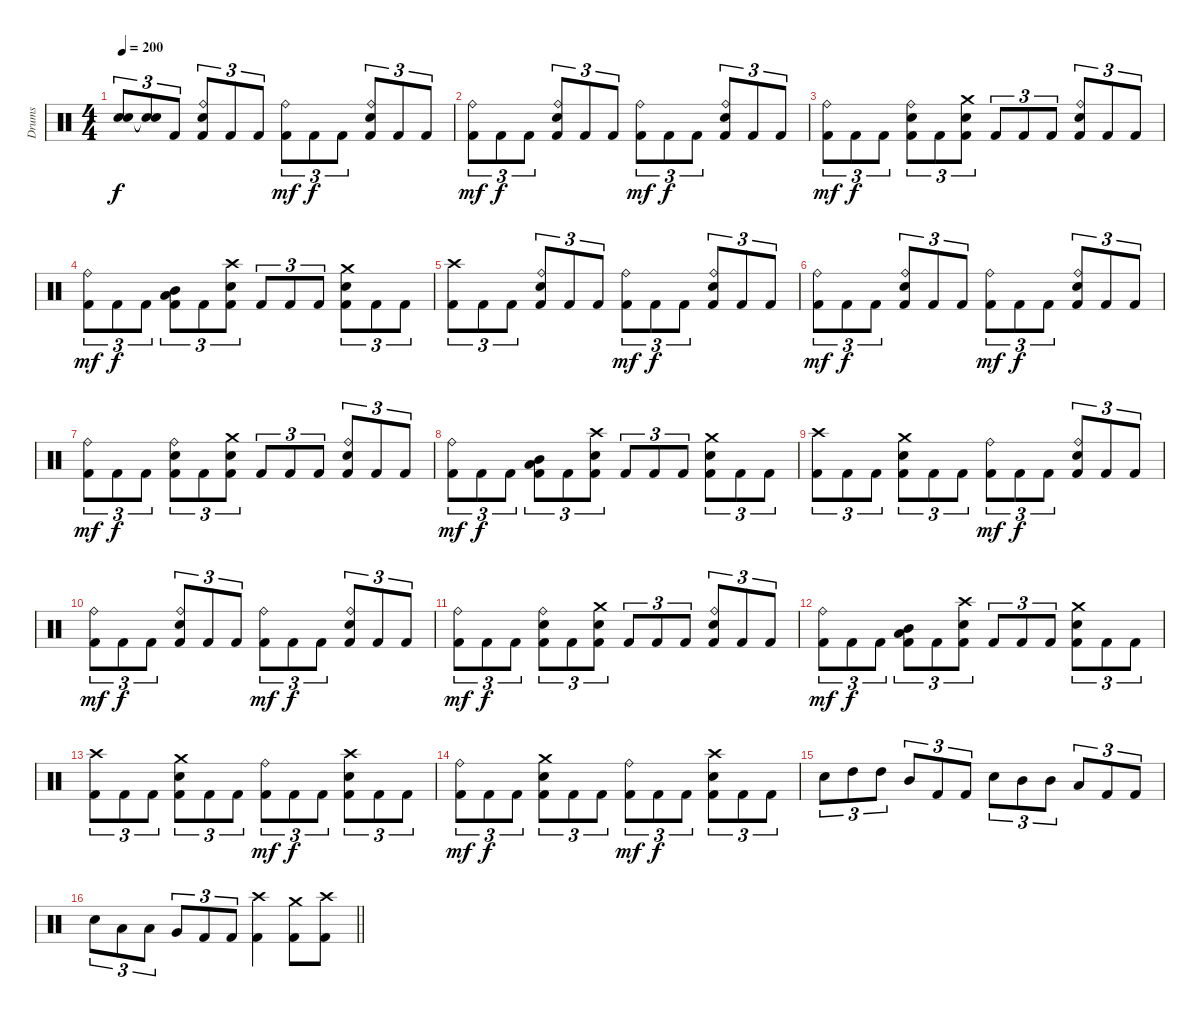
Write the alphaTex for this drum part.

\track ("Drums" "Drums") {instrument percussion}
\staff {score}
\articulation defaults
\ts (4 4)
\tempo 200
\clef neutral
\ks c
("Snare (hit)"{t} "Snare (hit)"{t}).8{tu (3 2) dy f} ("Snare (hit)"{t} "Snare (hit)"{t}).8{tu (3 2)} "Kick (hit) 2".8{tu (3 2)} ("Ride (bell)" "Electric Snare (hit)" "Kick (hit) 2").8{tu (3 2)} "Kick (hit) 2".8{tu (3 2)} "Kick (hit) 2".8{tu (3 2)} ("Ride (bell)" "Kick (hit) 2").8{tu (3 2) dy mf} "Kick (hit) 2".8{tu (3 2) dy f} "Kick (hit) 2".8{tu (3 2)} ("Ride (bell)" "Electric Snare (hit)" "Kick (hit) 2").8{tu (3 2)} "Kick (hit) 2".8{tu (3 2)} "Kick (hit) 2".8{tu (3 2)} |
("Ride (bell)" "Kick (hit) 2").8{tu (3 2) dy mf} "Kick (hit) 2".8{tu (3 2) dy f} "Kick (hit) 2".8{tu (3 2)} ("Ride (bell)" "Electric Snare (hit)" "Kick (hit) 2").8{tu (3 2)} "Kick (hit) 2".8{tu (3 2)} "Kick (hit) 2".8{tu (3 2)} ("Ride (bell)" "Kick (hit) 2").8{tu (3 2) dy mf} "Kick (hit) 2".8{tu (3 2) dy f} "Kick (hit) 2".8{tu (3 2)} ("Ride (bell)" "Electric Snare (hit)" "Kick (hit) 2").8{tu (3 2)} "Kick (hit) 2".8{tu (3 2)} "Kick (hit) 2".8{tu (3 2)} |
("Ride (bell)" "Kick (hit) 2").8{tu (3 2) dy mf} "Kick (hit) 2".8{tu (3 2) dy f} "Kick (hit) 2".8{tu (3 2)} ("Ride (bell)" "Electric Snare (hit)" "Kick (hit) 2").8{tu (3 2)} "Kick (hit) 2".8{tu (3 2)} ("Crash medium (hit)" "Electric Snare (hit)" "Kick (hit) 2").8{tu (3 2)} "Kick (hit) 2".8{tu (3 2)} "Kick (hit) 2".8{tu (3 2)} "Kick (hit) 2".8{tu (3 2)} ("Ride (bell)" "Electric Snare (hit)" "Kick (hit) 2").8{tu (3 2)} "Kick (hit) 2".8{tu (3 2)} "Kick (hit) 2".8{tu (3 2)} |
("Ride (bell)" "Kick (hit) 2").8{tu (3 2) dy mf} "Kick (hit) 2".8{tu (3 2) dy f} "Kick (hit) 2".8{tu (3 2)} ("Mid Tom (hit)" "Low Tom (hit)" "Kick (hit) 2").8{tu (3 2)} "Kick (hit) 2".8{tu (3 2)} ("Crash high (hit)" "Electric Snare (hit)" "Kick (hit) 2").8{tu (3 2)} "Kick (hit) 2".8{tu (3 2)} "Kick (hit) 2".8{tu (3 2)} "Kick (hit) 2".8{tu (3 2)} ("Crash medium (hit)" "Electric Snare (hit)" "Kick (hit) 2").8{tu (3 2)} "Kick (hit) 2".8{tu (3 2)} "Kick (hit) 2".8{tu (3 2)} |
("Crash high (hit)" "Kick (hit) 2").8{tu (3 2)} "Kick (hit) 2".8{tu (3 2)} "Kick (hit) 2".8{tu (3 2)} ("Ride (bell)" "Electric Snare (hit)" "Kick (hit) 2").8{tu (3 2)} "Kick (hit) 2".8{tu (3 2)} "Kick (hit) 2".8{tu (3 2)} ("Ride (bell)" "Kick (hit) 2").8{tu (3 2) dy mf} "Kick (hit) 2".8{tu (3 2) dy f} "Kick (hit) 2".8{tu (3 2)} ("Ride (bell)" "Electric Snare (hit)" "Kick (hit) 2").8{tu (3 2)} "Kick (hit) 2".8{tu (3 2)} "Kick (hit) 2".8{tu (3 2)} |
("Ride (bell)" "Kick (hit) 2").8{tu (3 2) dy mf} "Kick (hit) 2".8{tu (3 2) dy f} "Kick (hit) 2".8{tu (3 2)} ("Ride (bell)" "Electric Snare (hit)" "Kick (hit) 2").8{tu (3 2)} "Kick (hit) 2".8{tu (3 2)} "Kick (hit) 2".8{tu (3 2)} ("Ride (bell)" "Kick (hit) 2").8{tu (3 2) dy mf} "Kick (hit) 2".8{tu (3 2) dy f} "Kick (hit) 2".8{tu (3 2)} ("Ride (bell)" "Electric Snare (hit)" "Kick (hit) 2").8{tu (3 2)} "Kick (hit) 2".8{tu (3 2)} "Kick (hit) 2".8{tu (3 2)} |
("Ride (bell)" "Kick (hit) 2").8{tu (3 2) dy mf} "Kick (hit) 2".8{tu (3 2) dy f} "Kick (hit) 2".8{tu (3 2)} ("Ride (bell)" "Electric Snare (hit)" "Kick (hit) 2").8{tu (3 2)} "Kick (hit) 2".8{tu (3 2)} ("Crash medium (hit)" "Electric Snare (hit)" "Kick (hit) 2").8{tu (3 2)} "Kick (hit) 2".8{tu (3 2)} "Kick (hit) 2".8{tu (3 2)} "Kick (hit) 2".8{tu (3 2)} ("Ride (bell)" "Electric Snare (hit)" "Kick (hit) 2").8{tu (3 2)} "Kick (hit) 2".8{tu (3 2)} "Kick (hit) 2".8{tu (3 2)} |
("Ride (bell)" "Kick (hit) 2").8{tu (3 2) dy mf} "Kick (hit) 2".8{tu (3 2) dy f} "Kick (hit) 2".8{tu (3 2)} ("Mid Tom (hit)" "Low Tom (hit)" "Kick (hit) 2").8{tu (3 2)} "Kick (hit) 2".8{tu (3 2)} ("Crash high (hit)" "Electric Snare (hit)" "Kick (hit) 2").8{tu (3 2)} "Kick (hit) 2".8{tu (3 2)} "Kick (hit) 2".8{tu (3 2)} "Kick (hit) 2".8{tu (3 2)} ("Crash medium (hit)" "Electric Snare (hit)" "Kick (hit) 2").8{tu (3 2)} "Kick (hit) 2".8{tu (3 2)} "Kick (hit) 2".8{tu (3 2)} |
("Crash high (hit)" "Kick (hit) 2").8{tu (3 2)} "Kick (hit) 2".8{tu (3 2)} "Kick (hit) 2".8{tu (3 2)} ("Crash medium (hit)" "Electric Snare (hit)" "Kick (hit) 2").8{tu (3 2)} "Kick (hit) 2".8{tu (3 2)} "Kick (hit) 2".8{tu (3 2)} ("Ride (bell)" "Kick (hit) 2").8{tu (3 2) dy mf} "Kick (hit) 2".8{tu (3 2) dy f} "Kick (hit) 2".8{tu (3 2)} ("Ride (bell)" "Electric Snare (hit)" "Kick (hit) 2").8{tu (3 2)} "Kick (hit) 2".8{tu (3 2)} "Kick (hit) 2".8{tu (3 2)} |
("Ride (bell)" "Kick (hit) 2").8{tu (3 2) dy mf} "Kick (hit) 2".8{tu (3 2) dy f} "Kick (hit) 2".8{tu (3 2)} ("Ride (bell)" "Electric Snare (hit)" "Kick (hit) 2").8{tu (3 2)} "Kick (hit) 2".8{tu (3 2)} "Kick (hit) 2".8{tu (3 2)} ("Ride (bell)" "Kick (hit) 2").8{tu (3 2) dy mf} "Kick (hit) 2".8{tu (3 2) dy f} "Kick (hit) 2".8{tu (3 2)} ("Ride (bell)" "Electric Snare (hit)" "Kick (hit) 2").8{tu (3 2)} "Kick (hit) 2".8{tu (3 2)} "Kick (hit) 2".8{tu (3 2)} |
("Ride (bell)" "Kick (hit) 2").8{tu (3 2) dy mf} "Kick (hit) 2".8{tu (3 2) dy f} "Kick (hit) 2".8{tu (3 2)} ("Ride (bell)" "Electric Snare (hit)" "Kick (hit) 2").8{tu (3 2)} "Kick (hit) 2".8{tu (3 2)} ("Crash medium (hit)" "Electric Snare (hit)" "Kick (hit) 2").8{tu (3 2)} "Kick (hit) 2".8{tu (3 2)} "Kick (hit) 2".8{tu (3 2)} "Kick (hit) 2".8{tu (3 2)} ("Ride (bell)" "Electric Snare (hit)" "Kick (hit) 2").8{tu (3 2)} "Kick (hit) 2".8{tu (3 2)} "Kick (hit) 2".8{tu (3 2)} |
("Ride (bell)" "Kick (hit) 2").8{tu (3 2) dy mf} "Kick (hit) 2".8{tu (3 2) dy f} "Kick (hit) 2".8{tu (3 2)} ("Mid Tom (hit)" "Low Tom (hit)" "Kick (hit) 2").8{tu (3 2)} "Kick (hit) 2".8{tu (3 2)} ("Crash high (hit)" "Electric Snare (hit)" "Kick (hit) 2").8{tu (3 2)} "Kick (hit) 2".8{tu (3 2)} "Kick (hit) 2".8{tu (3 2)} "Kick (hit) 2".8{tu (3 2)} ("Crash medium (hit)" "Electric Snare (hit)" "Kick (hit) 2").8{tu (3 2)} "Kick (hit) 2".8{tu (3 2)} "Kick (hit) 2".8{tu (3 2)} |
("Crash high (hit)" "Kick (hit) 2").8{tu (3 2)} "Kick (hit) 2".8{tu (3 2)} "Kick (hit) 2".8{tu (3 2)} ("Crash medium (hit)" "Electric Snare (hit)" "Kick (hit) 2").8{tu (3 2)} "Kick (hit) 2".8{tu (3 2)} "Kick (hit) 2".8{tu (3 2)} ("Ride (bell)" "Kick (hit) 2").8{tu (3 2) dy mf} "Kick (hit) 2".8{tu (3 2) dy f} "Kick (hit) 2".8{tu (3 2)} ("Crash high (hit)" "Electric Snare (hit)" "Kick (hit) 2").8{tu (3 2)} "Kick (hit) 2".8{tu (3 2)} "Kick (hit) 2".8{tu (3 2)} |
("Ride (bell)" "Kick (hit) 2").8{tu (3 2) dy mf} "Kick (hit) 2".8{tu (3 2) dy f} "Kick (hit) 2".8{tu (3 2)} ("Crash medium (hit)" "Electric Snare (hit)" "Kick (hit) 2").8{tu (3 2)} "Kick (hit) 2".8{tu (3 2)} "Kick (hit) 2".8{tu (3 2)} ("Ride (bell)" "Kick (hit) 2").8{tu (3 2) dy mf} "Kick (hit) 2".8{tu (3 2) dy f} "Kick (hit) 2".8{tu (3 2)} ("Crash high (hit)" "Electric Snare (hit)" "Kick (hit) 2").8{tu (3 2)} "Kick (hit) 2".8{tu (3 2)} "Kick (hit) 2".8{tu (3 2)} |
"Electric Snare (hit)".8{tu (3 2)} "High Tom (hit)".8{tu (3 2)} "High Tom (hit)".8{tu (3 2)} "Mid Tom (hit)".8{tu (3 2)} "Kick (hit) 2".8{tu (3 2)} "Kick (hit) 2".8{tu (3 2)} "Electric Snare (hit)".8{tu (3 2)} "Mid Tom (hit)".8{tu (3 2)} "Mid Tom (hit)".8{tu (3 2)} "Low Tom (hit)".8{tu (3 2)} "Kick (hit) 2".8{tu (3 2)} "Kick (hit) 2".8{tu (3 2)} |
\barLineRight lightlight "Electric Snare (hit)".8{tu (3 2)} "Low Tom (hit)".8{tu (3 2)} "Low Tom (hit)".8{tu (3 2)} "Very Low Tom (hit)".8{tu (3 2)} "Kick (hit) 2".8{tu (3 2)} "Kick (hit) 2".8{tu (3 2)}
("Crash high (hit)" "Kick (hit) 2").4 ("Crash medium (hit)" "Kick (hit) 2").8 ("Crash high (hit)" "Kick (hit) 2").8
